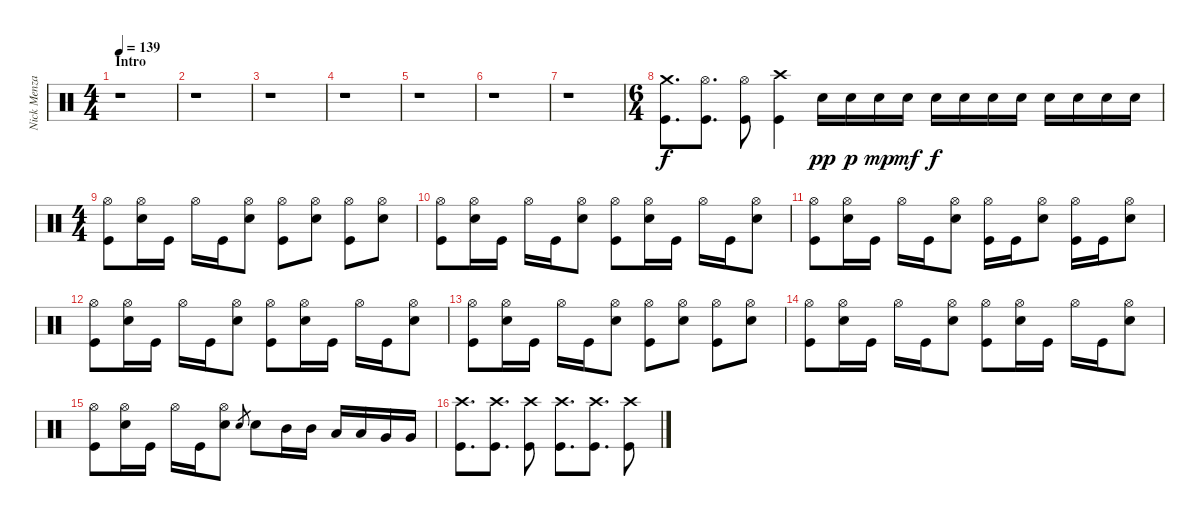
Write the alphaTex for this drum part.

\track ("Nick Menza" "Nick Menza") {instrument percussion}
\staff {score}
\articulation defaults
\ts (4 4)
\section ("" "Intro")
\tempo 139
\clef neutral
\ks c
r.1{dy f} |
r.1 |
r.1 |
r.1 |
r.1 |
r.1 |
r.1 |
\ts (6 4)
("Crash medium (hit)" "Kick (hit)").8{d} ("Hi-Hat (open)" "Kick (hit)").8{d} ("Hi-Hat (open)" "Kick (hit)").8 ("Crash high (hit)" "Kick (hit)").4 "Snare (hit) 2".16{dy pp} "Snare (hit) 2".16{dy p} "Snare (hit) 2".16{dy mp} "Snare (hit) 2".16{dy mf} "Snare (hit) 2".16{dy f} "Snare (hit) 2".16 "Snare (hit) 2".16 "Snare (hit) 2".16 "Snare (hit) 2".16 "Snare (hit) 2".16 "Snare (hit) 2".16 "Snare (hit) 2".16 |
\ts (4 4)
("Hi-Hat (open)" "Kick (hit)").8 ("Hi-Hat (open)" "Snare (hit) 2").16 "Kick (hit)".16 "Hi-Hat (open)".16 "Kick (hit)".16 ("Hi-Hat (open)" "Snare (hit) 2").8 ("Hi-Hat (open)" "Kick (hit)").8 ("Hi-Hat (open)" "Snare (hit) 2").8 ("Hi-Hat (open)" "Kick (hit)").8 ("Hi-Hat (open)" "Snare (hit) 2").8 |
("Hi-Hat (open)" "Kick (hit)").8 ("Hi-Hat (open)" "Snare (hit) 2").16 "Kick (hit)".16 "Hi-Hat (open)".16 "Kick (hit)".16 ("Hi-Hat (open)" "Snare (hit) 2").8 ("Hi-Hat (open)" "Kick (hit)").8 ("Hi-Hat (open)" "Snare (hit) 2").16 "Kick (hit)".16 "Hi-Hat (open)".16 "Kick (hit)".16 ("Hi-Hat (open)" "Snare (hit) 2").8 |
("Hi-Hat (open)" "Kick (hit)").8 ("Hi-Hat (open)" "Snare (hit) 2").16 "Kick (hit)".16 "Hi-Hat (open)".16 "Kick (hit)".16 ("Hi-Hat (open)" "Snare (hit) 2").8 ("Hi-Hat (open)" "Kick (hit)").16 "Kick (hit)".16 ("Hi-Hat (open)" "Snare (hit) 2").8 ("Hi-Hat (open)" "Kick (hit)").16 "Kick (hit)".16 ("Hi-Hat (open)" "Snare (hit) 2").8 |
("Hi-Hat (open)" "Kick (hit)").8 ("Hi-Hat (open)" "Snare (hit) 2").16 "Kick (hit)".16 "Hi-Hat (open)".16 "Kick (hit)".16 ("Hi-Hat (open)" "Snare (hit) 2").8 ("Hi-Hat (open)" "Kick (hit)").8 ("Hi-Hat (open)" "Snare (hit) 2").16 "Kick (hit)".16 "Hi-Hat (open)".16 "Kick (hit)".16 ("Hi-Hat (open)" "Snare (hit) 2").8 |
("Hi-Hat (open)" "Kick (hit)").8 ("Hi-Hat (open)" "Snare (hit) 2").16 "Kick (hit)".16 "Hi-Hat (open)".16 "Kick (hit)".16 ("Hi-Hat (open)" "Snare (hit) 2").8 ("Hi-Hat (open)" "Kick (hit)").8 ("Hi-Hat (open)" "Snare (hit) 2").8 ("Hi-Hat (open)" "Kick (hit)").8 ("Hi-Hat (open)" "Snare (hit) 2").8 |
("Hi-Hat (open)" "Kick (hit)").8 ("Hi-Hat (open)" "Snare (hit) 2").16 "Kick (hit)".16 "Hi-Hat (open)".16 "Kick (hit)".16 ("Hi-Hat (open)" "Snare (hit) 2").8 ("Hi-Hat (open)" "Kick (hit)").8 ("Hi-Hat (open)" "Snare (hit) 2").16 "Kick (hit)".16 "Hi-Hat (open)".16 "Kick (hit)".16 ("Hi-Hat (open)" "Snare (hit) 2").8 |
("Hi-Hat (open)" "Kick (hit)").8 ("Hi-Hat (open)" "Snare (hit) 2").16 "Kick (hit)".16 "Hi-Hat (open)".16 "Kick (hit)".16 ("Hi-Hat (open)" "Snare (hit) 2").8 "Snare (hit) 2".8{gr} "Snare (hit) 2".8 "Mid Tom (hit)".16 "Mid Tom (hit)".16 "Low Tom (hit)".16 "Low Tom (hit)".16 "Very Low Tom (hit)".16 "Very Low Tom (hit)".16 |
("Crash high (hit)" "Kick (hit)").8{d} ("Crash high (hit)" "Kick (hit)").8{d} ("Crash high (hit)" "Kick (hit)").8 ("Crash high (hit)" "Kick (hit)").8{d} ("Crash high (hit)" "Kick (hit)").8{d} ("Crash high (hit)" "Kick (hit)").8
